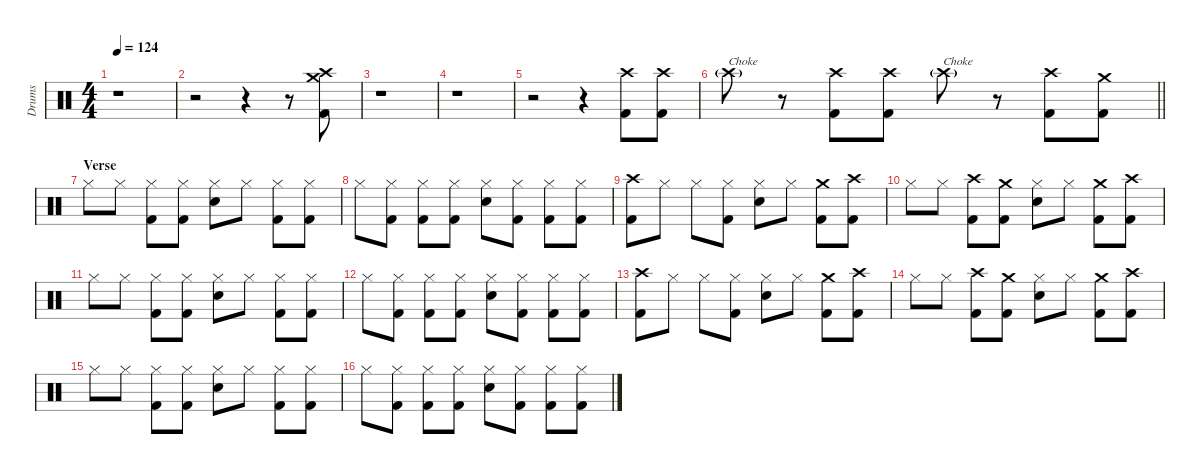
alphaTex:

\defaultSystemsLayout 4
\hideDynamics
\bracketExtendMode nobrackets
\firstSystemTrackNameMode fullname
\otherSystemsTrackNameOrientation horizontal
\track ("Drums" "drm.") {instrument percussion}
\staff {score}
\articulation defaults
\ts (4 4)
\tempo 124
\clef neutral
\ks c
r.1{dy pp beam Down} |
r.2{beam Down} r.4{beam Down} r.8{beam Down} ("Crash high (hit)" "Crash medium (hit)" "Kick (hit) 2").8{dy ff beam Down} |
r.1{beam Down} |
r.1{beam Down} |
r.2{beam Down} r.4{beam Down} ("Crash high (hit)" "Kick (hit) 2").8{beam Down} ("Crash high (hit)" "Kick (hit) 2").8{beam Down} |
\barLineRight lightlight "Crash high (hit)"{g}.8{txt "Choke" dy f beam Down}
r.8{beam Down} ("Crash high (hit)" "Kick (hit) 2").8{dy ff beam Down} ("Crash high (hit)" "Kick (hit) 2").8{beam Down} "Crash high (hit)"{g}.8{txt "Choke" dy f beam Down} r.8{beam Down} ("Crash high (hit)" "Kick (hit) 2").8{dy ff beam Down} ("Crash medium (hit)" "Kick (hit) 2").8{beam Down} |
\section ("" "Verse")
"Hi-Hat (closed)".8{dy mp beam Down} "Hi-Hat (closed)".8{dy mf beam Down} ("Hi-Hat (closed)" "Kick (hit) 2").8{dy f beam Down} ("Hi-Hat (closed)" "Kick (hit) 2").8{beam Down} ("Hi-Hat (closed)" "Snare (hit) 2").8{beam Down} "Hi-Hat (closed)".8{beam Down} ("Hi-Hat (closed)" "Kick (hit) 2").8{beam Down} ("Hi-Hat (closed)" "Kick (hit) 2").8{beam Down} |
"Hi-Hat (closed)".8{beam Down} ("Hi-Hat (closed)" "Kick (hit) 2").8{beam Down} ("Hi-Hat (closed)" "Kick (hit) 2").8{beam Down} ("Hi-Hat (closed)" "Kick (hit) 2").8{beam Down} ("Hi-Hat (closed)" "Snare (hit) 2").8{beam Down} ("Hi-Hat (closed)" "Kick (hit) 2").8{beam Down} ("Hi-Hat (closed)" "Kick (hit) 2").8{beam Down} ("Hi-Hat (closed)" "Kick (hit) 2").8{beam Down} |
("Crash high (hit)" "Kick (hit) 2").8{beam Down} "Hi-Hat (closed)".8{dy mp beam Down} "Hi-Hat (closed)".8{dy mf beam Down} ("Hi-Hat (closed)" "Kick (hit) 2").8{beam Down} ("Hi-Hat (closed)" "Snare (hit) 2").8{beam Down} "Hi-Hat (closed)".8{dy f beam Down} ("Crash medium (hit)" "Kick (hit) 2").8{beam Down} ("Crash high (hit)" "Kick (hit) 2").8{beam Down} |
"Hi-Hat (closed)".8{beam Down} "Hi-Hat (closed)".8{beam Down} ("Crash high (hit)" "Kick (hit) 2").8{beam Down} ("Crash medium (hit)" "Kick (hit) 2").8{beam Down} ("Hi-Hat (closed)" "Snare (hit) 2").8{beam Down} "Hi-Hat (closed)".8{beam Down} ("Crash medium (hit)" "Kick (hit) 2").8{beam Down} ("Crash high (hit)" "Kick (hit) 2").8{beam Down} |
"Hi-Hat (closed)".8{dy mp beam Down} "Hi-Hat (closed)".8{dy mf beam Down} ("Hi-Hat (closed)" "Kick (hit) 2").8{dy f beam Down} ("Hi-Hat (closed)" "Kick (hit) 2").8{beam Down} ("Hi-Hat (closed)" "Snare (hit) 2").8{beam Down} "Hi-Hat (closed)".8{beam Down} ("Hi-Hat (closed)" "Kick (hit) 2").8{beam Down} ("Hi-Hat (closed)" "Kick (hit) 2").8{beam Down} |
"Hi-Hat (closed)".8{beam Down} ("Hi-Hat (closed)" "Kick (hit) 2").8{beam Down} ("Hi-Hat (closed)" "Kick (hit) 2").8{beam Down} ("Hi-Hat (closed)" "Kick (hit) 2").8{beam Down} ("Hi-Hat (closed)" "Snare (hit) 2").8{beam Down} ("Hi-Hat (closed)" "Kick (hit) 2").8{beam Down} ("Hi-Hat (closed)" "Kick (hit) 2").8{beam Down} ("Hi-Hat (closed)" "Kick (hit) 2").8{beam Down} |
("Crash high (hit)" "Kick (hit) 2").8{beam Down} "Hi-Hat (closed)".8{dy mp beam Down} "Hi-Hat (closed)".8{dy mf beam Down} ("Hi-Hat (closed)" "Kick (hit) 2").8{beam Down} ("Hi-Hat (closed)" "Snare (hit) 2").8{beam Down} "Hi-Hat (closed)".8{dy f beam Down} ("Crash medium (hit)" "Kick (hit) 2").8{beam Down} ("Crash high (hit)" "Kick (hit) 2").8{beam Down} |
"Hi-Hat (closed)".8{beam Down} "Hi-Hat (closed)".8{beam Down} ("Crash high (hit)" "Kick (hit) 2").8{beam Down} ("Crash medium (hit)" "Kick (hit) 2").8{beam Down} ("Hi-Hat (closed)" "Snare (hit) 2").8{beam Down} "Hi-Hat (closed)".8{beam Down} ("Crash medium (hit)" "Kick (hit) 2").8{beam Down} ("Crash high (hit)" "Kick (hit) 2").8{beam Down} |
"Hi-Hat (closed)".8{dy mp beam Down} "Hi-Hat (closed)".8{dy mf beam Down} ("Hi-Hat (closed)" "Kick (hit) 2").8{dy f beam Down} ("Hi-Hat (closed)" "Kick (hit) 2").8{beam Down} ("Hi-Hat (closed)" "Snare (hit) 2").8{beam Down} "Hi-Hat (closed)".8{beam Down} ("Hi-Hat (closed)" "Kick (hit) 2").8{beam Down} ("Hi-Hat (closed)" "Kick (hit) 2").8{beam Down} |
"Hi-Hat (closed)".8{beam Down} ("Hi-Hat (closed)" "Kick (hit) 2").8{beam Down} ("Hi-Hat (closed)" "Kick (hit) 2").8{beam Down} ("Hi-Hat (closed)" "Kick (hit) 2").8{beam Down} ("Hi-Hat (closed)" "Snare (hit) 2").8{beam Down} ("Hi-Hat (closed)" "Kick (hit) 2").8{beam Down} ("Hi-Hat (closed)" "Kick (hit) 2").8{beam Down} ("Hi-Hat (closed)" "Kick (hit) 2").8{beam Down}
